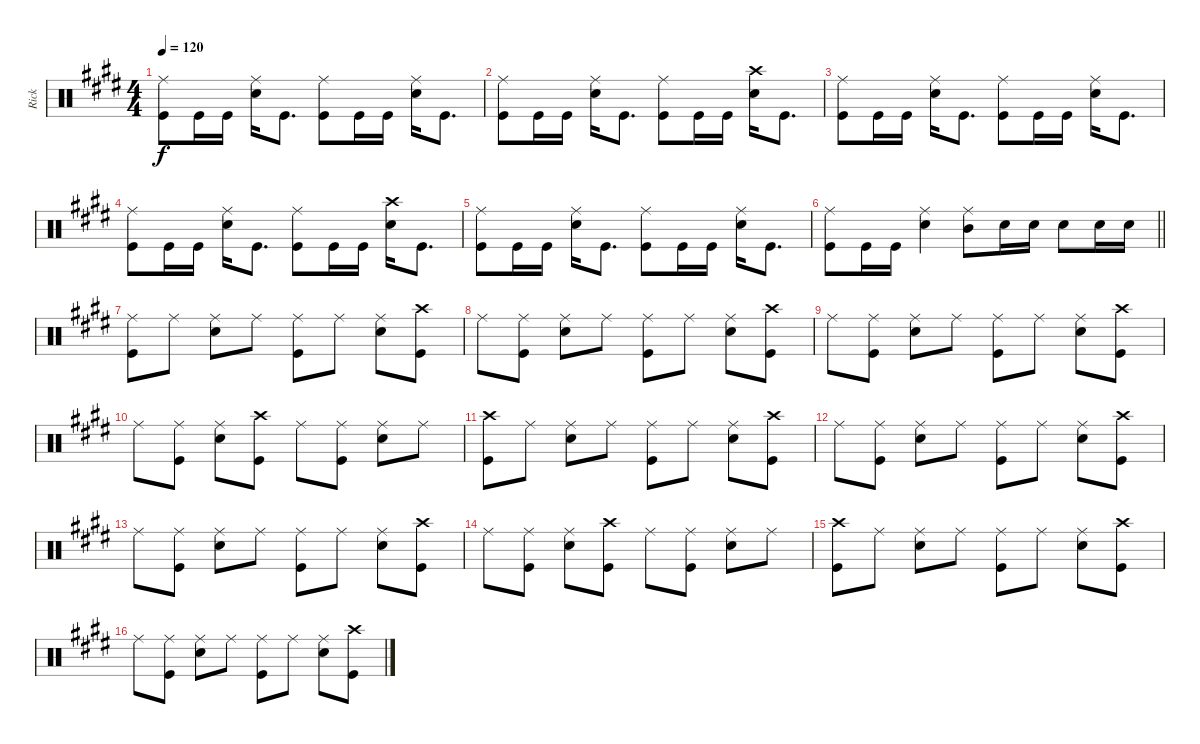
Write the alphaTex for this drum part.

\track ("Rick" "Rick") {instrument percussion}
\staff {score}
\articulation defaults
\ts (4 4)
\tempo 120
\clef neutral
\ks c#minor
("Ride (middle)" "Kick (hit)").8{dy f} "Kick (hit)".16 "Kick (hit)".16 ("Ride (middle)" "Snare (hit) 2").16 "Kick (hit)".8{d} ("Ride (middle)" "Kick (hit)").8 "Kick (hit)".16 "Kick (hit)".16 ("Ride (middle)" "Snare (hit) 2").16 "Kick (hit)".8{d} |
("Ride (middle)" "Kick (hit)").8 "Kick (hit)".16 "Kick (hit)".16 ("Ride (middle)" "Snare (hit) 2").16 "Kick (hit)".8{d} ("Ride (middle)" "Kick (hit)").8 "Kick (hit)".16 "Kick (hit)".16 ("Crash high (hit)" "Snare (hit) 2").16 "Kick (hit)".8{d} |
("Ride (middle)" "Kick (hit)").8 "Kick (hit)".16 "Kick (hit)".16 ("Ride (middle)" "Snare (hit) 2").16 "Kick (hit)".8{d} ("Ride (middle)" "Kick (hit)").8 "Kick (hit)".16 "Kick (hit)".16 ("Ride (middle)" "Snare (hit) 2").16 "Kick (hit)".8{d} |
("Ride (middle)" "Kick (hit)").8 "Kick (hit)".16 "Kick (hit)".16 ("Ride (middle)" "Snare (hit) 2").16 "Kick (hit)".8{d} ("Ride (middle)" "Kick (hit)").8 "Kick (hit)".16 "Kick (hit)".16 ("Crash high (hit)" "Snare (hit) 2").16 "Kick (hit)".8{d} |
("Ride (middle)" "Kick (hit)").8 "Kick (hit)".16 "Kick (hit)".16 ("Ride (middle)" "Snare (hit) 2").16 "Kick (hit)".8{d} ("Ride (middle)" "Kick (hit)").8 "Kick (hit)".16 "Kick (hit)".16 ("Ride (middle)" "Snare (hit) 2").16 "Kick (hit)".8{d} |
\barLineRight lightlight
("Ride (middle)" "Kick (hit)").8 "Kick (hit)".16 "Kick (hit)".16 ("Ride (middle)" "Snare (hit) 2").4 ("Ride (middle)" "Mid Tom (hit)").8 "Snare (hit) 2".16 "Snare (hit) 2".16 "Snare (hit) 2".8 "Snare (hit) 2".16 "Snare (hit) 2".16 |
("Ride (middle)" "Kick (hit)").8 "Ride (middle)".8 ("Ride (middle)" "Snare (hit) 2").8 "Ride (middle)".8 ("Ride (middle)" "Kick (hit)").8 "Ride (middle)".8 ("Ride (middle)" "Snare (hit) 2").8 ("Crash high (hit)" "Kick (hit)").8 |
"Ride (middle)".8 ("Ride (middle)" "Kick (hit)").8 ("Ride (middle)" "Snare (hit) 2").8 "Ride (middle)".8 ("Ride (middle)" "Kick (hit)").8 "Ride (middle)".8 ("Ride (middle)" "Snare (hit) 2").8 ("Crash high (hit)" "Kick (hit)").8 |
"Ride (middle)".8 ("Ride (middle)" "Kick (hit)").8 ("Ride (middle)" "Snare (hit) 2").8 "Ride (middle)".8 ("Ride (middle)" "Kick (hit)").8 "Ride (middle)".8 ("Ride (middle)" "Snare (hit) 2").8 ("Crash high (hit)" "Kick (hit)").8 |
"Ride (middle)".8 ("Ride (middle)" "Kick (hit)").8 ("Ride (middle)" "Snare (hit) 2").8 ("Crash high (hit)" "Kick (hit)").8 "Ride (middle)".8 ("Ride (middle)" "Kick (hit)").8 ("Ride (middle)" "Snare (hit) 2").8 "Ride (middle)".8 |
("Crash high (hit)" "Kick (hit)").8 "Ride (middle)".8 ("Ride (middle)" "Snare (hit) 2").8 "Ride (middle)".8 ("Ride (middle)" "Kick (hit)").8 "Ride (middle)".8 ("Ride (middle)" "Snare (hit) 2").8 ("Crash high (hit)" "Kick (hit)").8 |
"Ride (middle)".8 ("Ride (middle)" "Kick (hit)").8 ("Ride (middle)" "Snare (hit) 2").8 "Ride (middle)".8 ("Ride (middle)" "Kick (hit)").8 "Ride (middle)".8 ("Ride (middle)" "Snare (hit) 2").8 ("Crash high (hit)" "Kick (hit)").8 |
"Ride (middle)".8 ("Ride (middle)" "Kick (hit)").8 ("Ride (middle)" "Snare (hit) 2").8 "Ride (middle)".8 ("Ride (middle)" "Kick (hit)").8 "Ride (middle)".8 ("Ride (middle)" "Snare (hit) 2").8 ("Crash high (hit)" "Kick (hit)").8 |
"Ride (middle)".8 ("Ride (middle)" "Kick (hit)").8 ("Ride (middle)" "Snare (hit) 2").8 ("Crash high (hit)" "Kick (hit)").8 "Ride (middle)".8 ("Ride (middle)" "Kick (hit)").8 ("Ride (middle)" "Snare (hit) 2").8 "Ride (middle)".8 |
("Crash high (hit)" "Kick (hit)").8 "Ride (middle)".8 ("Ride (middle)" "Snare (hit) 2").8 "Ride (middle)".8 ("Ride (middle)" "Kick (hit)").8 "Ride (middle)".8 ("Ride (middle)" "Snare (hit) 2").8 ("Crash high (hit)" "Kick (hit)").8 |
"Ride (middle)".8 ("Ride (middle)" "Kick (hit)").8 ("Ride (middle)" "Snare (hit) 2").8 "Ride (middle)".8 ("Ride (middle)" "Kick (hit)").8 "Ride (middle)".8 ("Ride (middle)" "Snare (hit) 2").8 ("Crash high (hit)" "Kick (hit)").8
